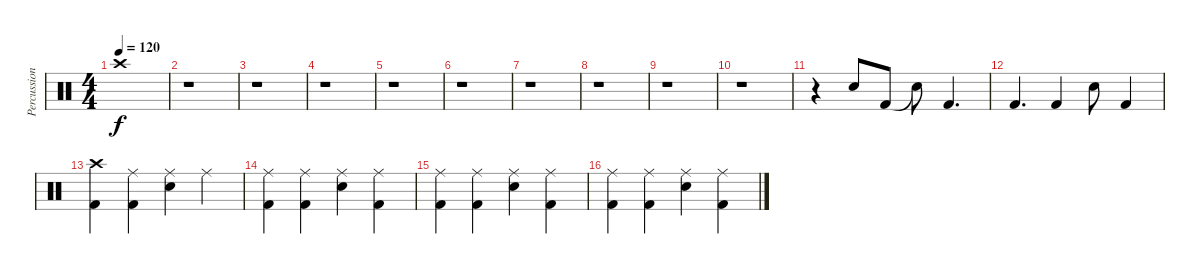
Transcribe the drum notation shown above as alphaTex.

\track ("Percussion" "Percussion") {instrument percussion}
\staff {score}
\articulation defaults
\ts (4 4)
\tempo 120
\clef neutral
\ks c "Crash high (hit)".1{dy f}
|
r.1 |
r.1 |
r.1 |
r.1 |
r.1 |
r.1 |
r.1 |
r.1 |
r.1 |
r.4 "Electric Snare (hit)".8 "Kick (hit) 2".8 "Snare (hit)"{t}.8 "Kick (hit) 2".4{d} |
"Kick (hit) 2".4{d} "Kick (hit) 2".4 "Electric Snare (hit)".8 "Kick (hit) 2".4 |
("Kick (hit) 2" "Crash high (hit)").4 ("Ride (middle)" "Kick (hit) 2").4 ("Ride (middle)" "Electric Snare (hit)").4 "Ride (middle)".4 |
("Ride (middle)" "Kick (hit) 2").4 ("Ride (middle)" "Kick (hit) 2").4 ("Ride (middle)" "Electric Snare (hit)").4 ("Ride (middle)" "Kick (hit) 2").4 |
("Ride (middle)" "Kick (hit) 2").4 ("Ride (middle)" "Kick (hit) 2").4 ("Ride (middle)" "Electric Snare (hit)").4 ("Ride (middle)" "Kick (hit) 2").4 |
("Ride (middle)" "Kick (hit) 2").4 ("Ride (middle)" "Kick (hit) 2").4 ("Ride (middle)" "Electric Snare (hit)").4 ("Ride (middle)" "Kick (hit) 2").4
